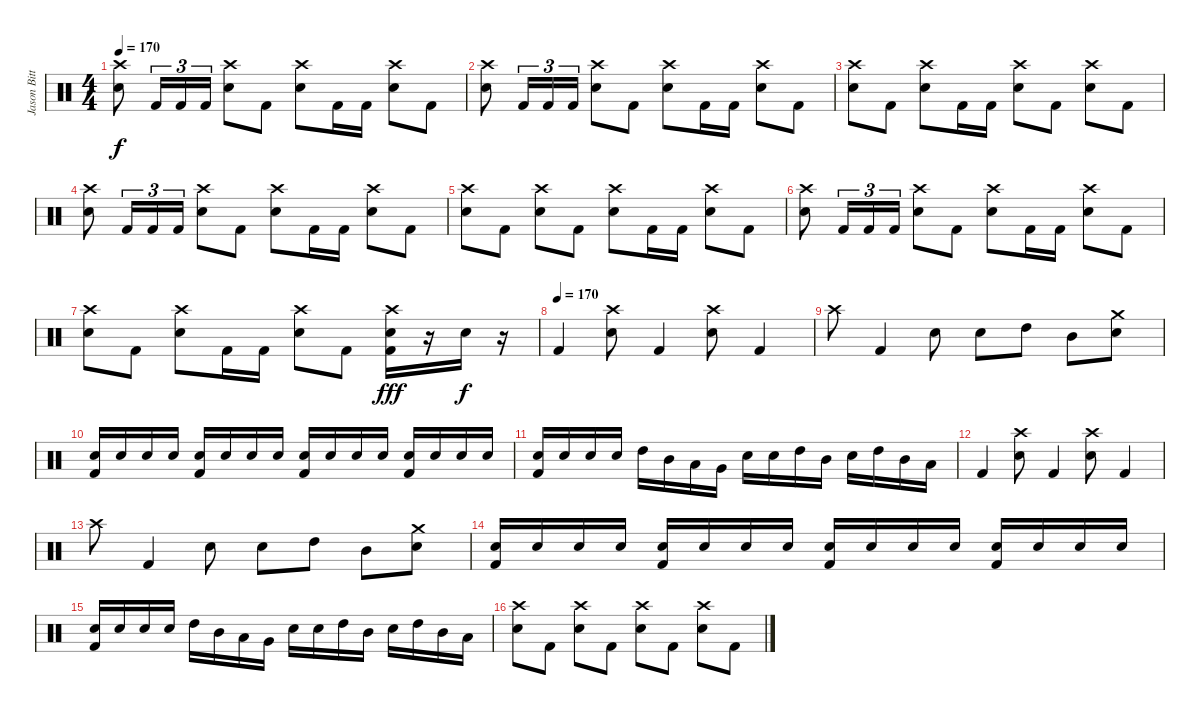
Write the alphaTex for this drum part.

\track ("Jason Bittner" "Jason Bitt") {instrument percussion}
\staff {score}
\articulation defaults
\ts (4 4)
\tempo 170
\clef neutral
\ks c
("Crash high (hit)" "Electric Snare (hit)").8{dy f} "Kick (hit) 2".16{tu (3 2)} "Kick (hit) 2".16{tu (3 2)} "Kick (hit) 2".16{tu (3 2)} ("Crash high (hit)" "Electric Snare (hit)").8 "Kick (hit) 2".8 ("Crash high (hit)" "Electric Snare (hit)").8 "Kick (hit) 2".16 "Kick (hit) 2".16 ("Crash high (hit)" "Electric Snare (hit)").8 "Kick (hit) 2".8 |
("Crash high (hit)" "Electric Snare (hit)").8 "Kick (hit) 2".16{tu (3 2)} "Kick (hit) 2".16{tu (3 2)} "Kick (hit) 2".16{tu (3 2)} ("Crash high (hit)" "Electric Snare (hit)").8 "Kick (hit) 2".8 ("Crash high (hit)" "Electric Snare (hit)").8 "Kick (hit) 2".16 "Kick (hit) 2".16 ("Crash high (hit)" "Electric Snare (hit)").8 "Kick (hit) 2".8 |
("Crash high (hit)" "Electric Snare (hit)").8 "Kick (hit) 2".8 ("Crash high (hit)" "Electric Snare (hit)").8 "Kick (hit) 2".16 "Kick (hit) 2".16 ("Crash high (hit)" "Electric Snare (hit)").8 "Kick (hit) 2".8 ("Crash high (hit)" "Electric Snare (hit)").8 "Kick (hit) 2".8 |
("Crash high (hit)" "Electric Snare (hit)").8 "Kick (hit) 2".16{tu (3 2)} "Kick (hit) 2".16{tu (3 2)} "Kick (hit) 2".16{tu (3 2)} ("Crash high (hit)" "Electric Snare (hit)").8 "Kick (hit) 2".8 ("Crash high (hit)" "Electric Snare (hit)").8 "Kick (hit) 2".16 "Kick (hit) 2".16 ("Crash high (hit)" "Electric Snare (hit)").8 "Kick (hit) 2".8 |
("Crash high (hit)" "Electric Snare (hit)").8 "Kick (hit) 2".8 ("Crash high (hit)" "Electric Snare (hit)").8 "Kick (hit) 2".8 ("Crash high (hit)" "Electric Snare (hit)").8 "Kick (hit) 2".16 "Kick (hit) 2".16 ("Crash high (hit)" "Electric Snare (hit)").8 "Kick (hit) 2".8 |
("Crash high (hit)" "Electric Snare (hit)").8 "Kick (hit) 2".16{tu (3 2)} "Kick (hit) 2".16{tu (3 2)} "Kick (hit) 2".16{tu (3 2)} ("Crash high (hit)" "Electric Snare (hit)").8 "Kick (hit) 2".8 ("Crash high (hit)" "Electric Snare (hit)").8 "Kick (hit) 2".16 "Kick (hit) 2".16 ("Crash high (hit)" "Electric Snare (hit)").8 "Kick (hit) 2".8 |
("Crash high (hit)" "Electric Snare (hit)").8 "Kick (hit) 2".8 ("Crash high (hit)" "Electric Snare (hit)").8 "Kick (hit) 2".16 "Kick (hit) 2".16 ("Crash high (hit)" "Electric Snare (hit)").8 "Kick (hit) 2".8 ("Crash high (hit)" "Electric Snare (hit)" "Kick (hit) 2").16{dy fff} r.16 "Electric Snare (hit)".16{dy f} r.16 |
\tempo (170)
"Kick (hit) 2".4 ("Crash high (hit)" "Electric Snare (hit)").8 "Kick (hit) 2".4 ("Crash high (hit)" "Electric Snare (hit)").8 "Kick (hit) 2".4 |
"Crash high (hit)".8 "Kick (hit) 2".4 "Electric Snare (hit)".8 "Electric Snare (hit)".8 "High Tom (hit)".8 "Mid Tom (hit)".8 ("Crash medium (hit)" "Electric Snare (hit)").8 |
("Electric Snare (hit)" "Kick (hit) 2").16 "Electric Snare (hit)".16 "Electric Snare (hit)".16 "Electric Snare (hit)".16 ("Electric Snare (hit)" "Kick (hit) 2").16 "Electric Snare (hit)".16 "Electric Snare (hit)".16 "Electric Snare (hit)".16 ("Electric Snare (hit)" "Kick (hit) 2").16 "Electric Snare (hit)".16 "Electric Snare (hit)".16 "Electric Snare (hit)".16 ("Electric Snare (hit)" "Kick (hit) 2").16 "Electric Snare (hit)".16 "Electric Snare (hit)".16 "Electric Snare (hit)".16 |
("Electric Snare (hit)" "Kick (hit) 2").16 "Electric Snare (hit)".16 "Electric Snare (hit)".16 "Electric Snare (hit)".16 "High Tom (hit)".16 "Mid Tom (hit)".16 "Low Tom (hit)".16 "Very Low Tom (hit)".16 "Electric Snare (hit)".16 "Electric Snare (hit)".16 "High Tom (hit)".16 "Mid Tom (hit)".16 "Electric Snare (hit)".16 "High Tom (hit)".16 "Mid Tom (hit)".16 "Low Tom (hit)".16 |
"Kick (hit) 2".4 ("Crash high (hit)" "Electric Snare (hit)").8 "Kick (hit) 2".4 ("Crash high (hit)" "Electric Snare (hit)").8 "Kick (hit) 2".4 |
"Crash high (hit)".8 "Kick (hit) 2".4 "Electric Snare (hit)".8 "Electric Snare (hit)".8 "High Tom (hit)".8 "Mid Tom (hit)".8 ("Crash medium (hit)" "Electric Snare (hit)").8 |
("Electric Snare (hit)" "Kick (hit) 2").16 "Electric Snare (hit)".16 "Electric Snare (hit)".16 "Electric Snare (hit)".16 ("Electric Snare (hit)" "Kick (hit) 2").16 "Electric Snare (hit)".16 "Electric Snare (hit)".16 "Electric Snare (hit)".16 ("Electric Snare (hit)" "Kick (hit) 2").16 "Electric Snare (hit)".16 "Electric Snare (hit)".16 "Electric Snare (hit)".16 ("Electric Snare (hit)" "Kick (hit) 2").16 "Electric Snare (hit)".16 "Electric Snare (hit)".16 "Electric Snare (hit)".16 |
("Electric Snare (hit)" "Kick (hit) 2").16 "Electric Snare (hit)".16 "Electric Snare (hit)".16 "Electric Snare (hit)".16 "High Tom (hit)".16 "Mid Tom (hit)".16 "Low Tom (hit)".16 "Very Low Tom (hit)".16 "Electric Snare (hit)".16 "Electric Snare (hit)".16 "High Tom (hit)".16 "Mid Tom (hit)".16 "Electric Snare (hit)".16 "High Tom (hit)".16 "Mid Tom (hit)".16 "Low Tom (hit)".16 |
("Crash high (hit)" "Electric Snare (hit)").8 "Kick (hit) 2".8 ("Crash high (hit)" "Electric Snare (hit)").8 "Kick (hit) 2".8 ("Crash high (hit)" "Electric Snare (hit)").8 "Kick (hit) 2".8 ("Crash high (hit)" "Electric Snare (hit)").8 "Kick (hit) 2".8
